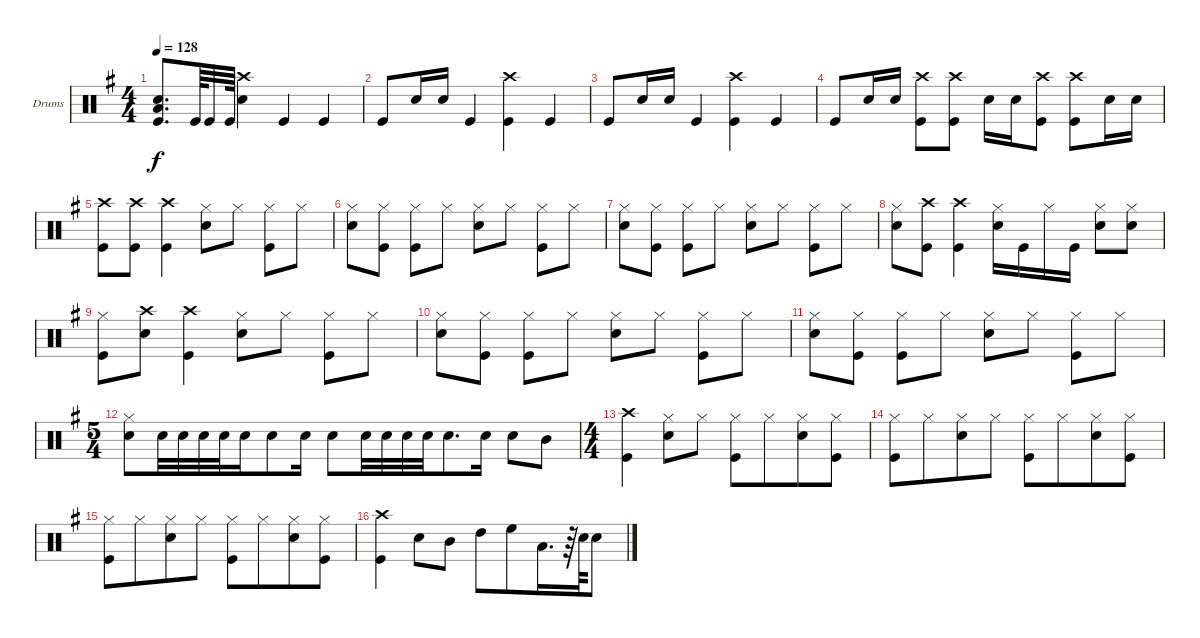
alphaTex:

\bracketExtendMode groupsimilarinstruments
\firstSystemTrackNameOrientation horizontal
\otherSystemsTrackNameOrientation horizontal
\track ("Drumkit" "Drums") {instrument percussion}
\staff {score}
\articulation defaults
\ts (4 4)
\tempo 128
\clef neutral
\scale
1.04288
\ks g
("Kick (hit)" "Snare (hit) 2" "Low Tom (hit)").8{d dy f} "Kick (hit)".64 "Kick (hit)".32 "Kick (hit)".64 ("Crash high (hit)" "Snare (hit) 2").4 "Kick (hit)".4 "Kick (hit)".4 |
\scale
0.957125 "Kick (hit)".8 "Snare (hit) 2".16 "Snare (hit) 2".16 "Kick (hit)".4 ("Crash high (hit)" "Kick (hit)").4 "Kick (hit)".4 |
\scale
1.04288 "Kick (hit)".8 "Snare (hit) 2".16 "Snare (hit) 2".16 "Kick (hit)".4 ("Crash high (hit)" "Kick (hit)").4 "Kick (hit)".4 |
\scale
0.957125 "Kick (hit)".8 "Snare (hit) 2".16 "Snare (hit) 2".16 ("Kick (hit)" "Crash high (hit)").8 ("Kick (hit)" "Crash high (hit)").8 "Snare (hit) 2".16 "Snare (hit) 2".16 ("Kick (hit)" "Crash high (hit)").8 ("Crash high (hit)" "Kick (hit)").8 "Snare (hit) 2".16 "Snare (hit) 2".16 |
\scale
1.04288 ("Kick (hit)" "Crash high (hit)").8 ("Kick (hit)" "Crash high (hit)").8 ("Kick (hit)" "Crash high (hit)").4 ("Hi-Hat (closed)" "Snare (hit) 2").8 "Hi-Hat (closed)".8 ("Kick (hit)" "Hi-Hat (closed)").8 "Hi-Hat (closed)".8 |
\scale
0.957125 ("Hi-Hat (closed)" "Snare (hit) 2").8 ("Kick (hit)" "Hi-Hat (closed)").8 ("Hi-Hat (closed)" "Kick (hit)").8 "Hi-Hat (closed)".8 ("Hi-Hat (closed)" "Snare (hit) 2").8 "Hi-Hat (closed)".8 ("Hi-Hat (closed)" "Kick (hit)").8 "Hi-Hat (closed)".8 |
\scale
1.04288 ("Hi-Hat (closed)" "Snare (hit) 2").8 ("Kick (hit)" "Hi-Hat (closed)").8 ("Hi-Hat (closed)" "Kick (hit)").8 "Hi-Hat (closed)".8 ("Hi-Hat (closed)" "Snare (hit) 2").8 "Hi-Hat (closed)".8 ("Hi-Hat (closed)" "Kick (hit)").8 "Hi-Hat (closed)".8 |
\scale
0.957125 ("Hi-Hat (closed)" "Snare (hit) 2").8 ("Kick (hit)" "Crash high (hit)").8 ("Kick (hit)" "Crash high (hit)").4 ("Hi-Hat (closed)" "Snare (hit) 2").16 "Kick (hit)".16 "Hi-Hat (closed)".16 "Kick (hit)".16 ("Snare (hit) 2" "Hi-Hat (closed)").8 ("Snare (hit) 2" "Hi-Hat (closed)").8 |
\scale
1.04288 ("Kick (hit)" "Hi-Hat (closed)").8 ("Crash high (hit)" "Snare (hit) 2").8 ("Kick (hit)" "Crash high (hit)").4 ("Hi-Hat (closed)" "Snare (hit) 2").8 "Hi-Hat (closed)".8 ("Kick (hit)" "Hi-Hat (closed)").8 "Hi-Hat (closed)".8 |
\scale
0.957125 ("Hi-Hat (closed)" "Snare (hit) 2").8 ("Kick (hit)" "Hi-Hat (closed)").8 ("Hi-Hat (closed)" "Kick (hit)").8 "Hi-Hat (closed)".8 ("Hi-Hat (closed)" "Snare (hit) 2").8 "Hi-Hat (closed)".8 ("Hi-Hat (closed)" "Kick (hit)").8 "Hi-Hat (closed)".8 |
\scale
1.04288 ("Hi-Hat (closed)" "Snare (hit) 2").8 ("Kick (hit)" "Hi-Hat (closed)").8 ("Hi-Hat (closed)" "Kick (hit)").8 "Hi-Hat (closed)".8 ("Hi-Hat (closed)" "Snare (hit) 2").8 "Hi-Hat (closed)".8 ("Hi-Hat (closed)" "Kick (hit)").8 "Hi-Hat (closed)".8 |
\ts (5 4)
\beaming (8 4 4 6)
\scale
0.957125 ("Snare (hit) 2" "Hi-Hat (closed)").8 "Snare (hit) 2".32 "Snare (hit) 2".32 "Snare (hit) 2".32 "Snare (hit) 2".32 "Snare (hit) 2".16 "Snare (hit) 2".8 "Snare (hit) 2".16 "Snare (hit) 2".8 "Snare (hit) 2".32 "Snare (hit) 2".32 "Snare (hit) 2".32 "Snare (hit) 2".32 "Snare (hit) 2".8{d} "Snare (hit) 2".16 "Snare (hit) 2".8 "Mid Tom (hit)".8 |
\ts (4 4)
\beaming (8 4 4 6)
\scale
1.07314 ("Kick (hit)" "Crash high (hit)").4 ("Snare (hit) 2" "Hi-Hat (closed)").8 "Hi-Hat (closed)".8 ("Hi-Hat (closed)" "Kick (hit)").8 "Hi-Hat (closed)".8 ("Snare (hit) 2" "Hi-Hat (closed)").8 ("Kick (hit)" "Hi-Hat (closed)").8 |
\scale
0.92686 ("Hi-Hat (closed)" "Kick (hit)").8 "Hi-Hat (closed)".8 ("Snare (hit) 2" "Hi-Hat (closed)").8 "Hi-Hat (closed)".8 ("Hi-Hat (closed)" "Kick (hit)").8 "Hi-Hat (closed)".8 ("Snare (hit) 2" "Hi-Hat (closed)").8 ("Kick (hit)" "Hi-Hat (closed)").8 |
\scale
1.04288 ("Hi-Hat (closed)" "Kick (hit)").8 "Hi-Hat (closed)".8 ("Snare (hit) 2" "Hi-Hat (closed)").8 "Hi-Hat (closed)".8 ("Hi-Hat (closed)" "Kick (hit)").8 "Hi-Hat (closed)".8 ("Snare (hit) 2" "Hi-Hat (closed)").8 ("Kick (hit)" "Hi-Hat (closed)").8 |
\scale
0.957125 ("Kick (hit)" "Crash high (hit)").4 "Snare (hit) 2".8 "Mid Tom (hit)".8 "High Tom (hit)".8 "High Floor Tom (hit)".8 "Low Tom (hit)".16{d} r.64 "Snare (hit) 2".64 "Snare (hit) 2".8
